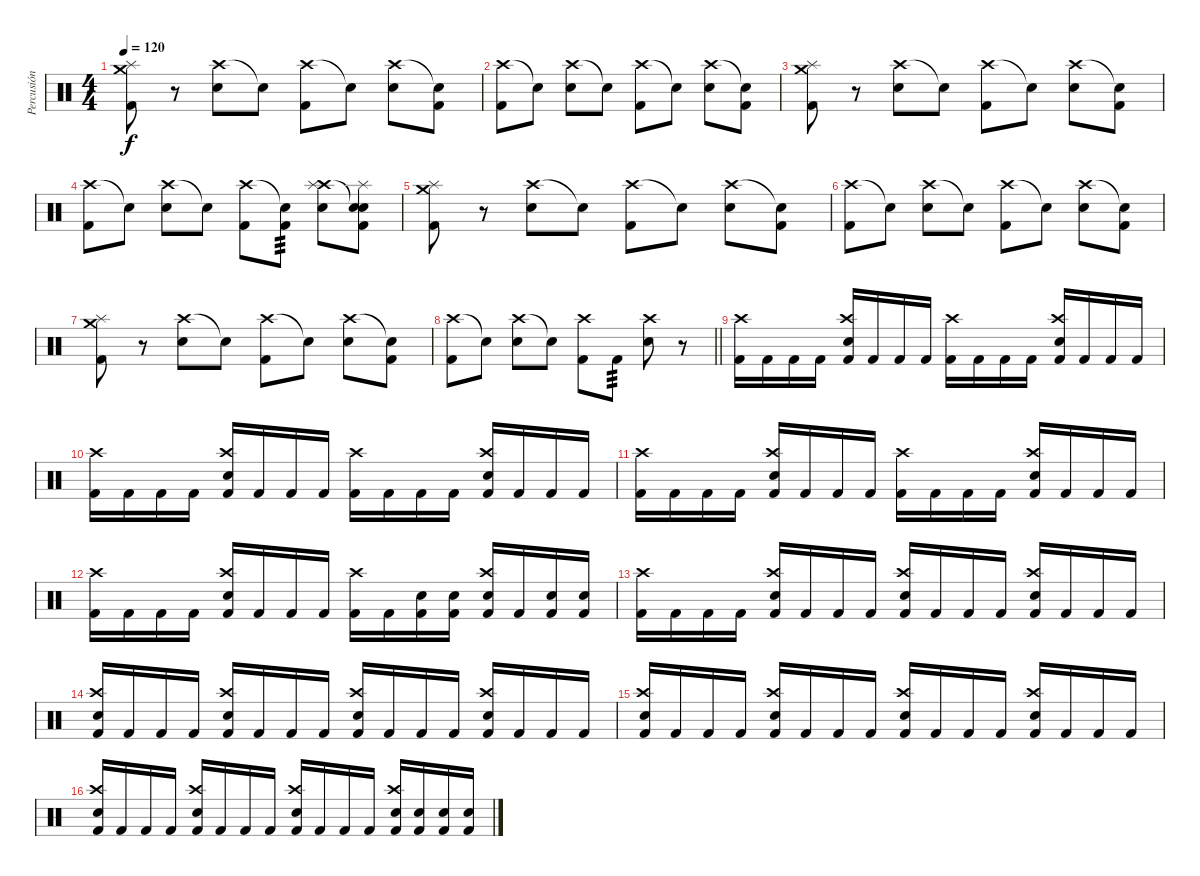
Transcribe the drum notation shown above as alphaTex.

\track ("Percusión" "Percusión") {instrument percussion}
\staff {score}
\articulation defaults
\ts (4 4)
\tempo 120
\clef neutral
\ks c
("Splash (hit)" "Crash medium (hit)" "Kick (hit) 2").8{dy f} r.8 ("Crash high (hit)" "Snare (hit) 2").8 "Snare (hit)"{t}.8 ("Crash high (hit)" "Kick (hit) 2").8 "Snare (hit)"{t}.8 ("Crash high (hit)" "Snare (hit) 2").8 ("Snare (hit)"{t} "Kick (hit) 2").8 |
("Crash high (hit)" "Kick (hit) 2").8 "Snare (hit)"{t}.8 ("Crash high (hit)" "Snare (hit) 2").8 "Snare (hit)"{t}.8 ("Crash high (hit)" "Kick (hit) 2").8 "Snare (hit)"{t}.8 ("Crash high (hit)" "Snare (hit) 2").8 ("Snare (hit)"{t} "Kick (hit) 2").8 |
("Splash (hit)" "Crash medium (hit)" "Kick (hit) 2").8 r.8 ("Crash high (hit)" "Snare (hit) 2").8 "Snare (hit)"{t}.8 ("Crash high (hit)" "Kick (hit) 2").8 "Snare (hit)"{t}.8 ("Crash high (hit)" "Snare (hit) 2").8 ("Snare (hit)"{t} "Kick (hit) 2").8 |
("Crash high (hit)" "Kick (hit) 2").8 "Snare (hit)"{t}.8 ("Crash high (hit)" "Snare (hit) 2").8 "Snare (hit)"{t}.8 ("Crash high (hit)" "Kick (hit) 2").8 ("Snare (hit)"{t} "Kick (hit) 2").8{tp 3} ("Crash high (hit)" "Splash (hit)" "Snare (hit) 2").8 ("Snare (hit)"{t} "Splash (hit)" "Snare (hit) 2" "Kick (hit) 2").8 |
("Splash (hit)" "Crash medium (hit)" "Kick (hit) 2").8 r.8 ("Crash high (hit)" "Snare (hit) 2").8 "Snare (hit)"{t}.8 ("Crash high (hit)" "Kick (hit) 2").8 "Snare (hit)"{t}.8 ("Crash high (hit)" "Snare (hit) 2").8 ("Snare (hit)"{t} "Kick (hit) 2").8 |
("Crash high (hit)" "Kick (hit) 2").8 "Snare (hit)"{t}.8 ("Crash high (hit)" "Snare (hit) 2").8 "Snare (hit)"{t}.8 ("Crash high (hit)" "Kick (hit) 2").8 "Snare (hit)"{t}.8 ("Crash high (hit)" "Snare (hit) 2").8 ("Snare (hit)"{t} "Kick (hit) 2").8 |
("Splash (hit)" "Crash medium (hit)" "Kick (hit) 2").8 r.8 ("Crash high (hit)" "Snare (hit) 2").8 "Snare (hit)"{t}.8 ("Crash high (hit)" "Kick (hit) 2").8 "Snare (hit)"{t}.8 ("Crash high (hit)" "Snare (hit) 2").8 ("Snare (hit)"{t} "Kick (hit) 2").8 |
\barLineRight lightlight
("Crash high (hit)" "Kick (hit) 2").8 "Snare (hit)"{t}.8 ("Crash high (hit)" "Snare (hit) 2").8 "Snare (hit)"{t}.8 ("Crash high (hit)" "Kick (hit) 2").8 "Kick (hit) 2".8{tp 3} ("Crash high (hit)" "Snare (hit) 2").8 r.8 |
("Crash high (hit)" "Kick (hit) 2").16 "Kick (hit) 2".16 "Kick (hit) 2".16 "Kick (hit) 2".16 ("Crash high (hit)" "Snare (hit) 2" "Kick (hit) 2").16 "Kick (hit) 2".16 "Kick (hit) 2".16 "Kick (hit) 2".16 ("Crash high (hit)" "Kick (hit) 2").16 "Kick (hit) 2".16 "Kick (hit) 2".16 "Kick (hit) 2".16 ("Crash high (hit)" "Snare (hit) 2" "Kick (hit) 2").16 "Kick (hit) 2".16 "Kick (hit) 2".16 "Kick (hit) 2".16 |
("Crash high (hit)" "Kick (hit) 2").16 "Kick (hit) 2".16 "Kick (hit) 2".16 "Kick (hit) 2".16 ("Crash high (hit)" "Snare (hit) 2" "Kick (hit) 2").16 "Kick (hit) 2".16 "Kick (hit) 2".16 "Kick (hit) 2".16 ("Crash high (hit)" "Kick (hit) 2").16 "Kick (hit) 2".16 "Kick (hit) 2".16 "Kick (hit) 2".16 ("Crash high (hit)" "Snare (hit) 2" "Kick (hit) 2").16 "Kick (hit) 2".16 "Kick (hit) 2".16 "Kick (hit) 2".16 |
("Crash high (hit)" "Kick (hit) 2").16 "Kick (hit) 2".16 "Kick (hit) 2".16 "Kick (hit) 2".16 ("Crash high (hit)" "Snare (hit) 2" "Kick (hit) 2").16 "Kick (hit) 2".16 "Kick (hit) 2".16 "Kick (hit) 2".16 ("Crash high (hit)" "Kick (hit) 2").16 "Kick (hit) 2".16 "Kick (hit) 2".16 "Kick (hit) 2".16 ("Crash high (hit)" "Snare (hit) 2" "Kick (hit) 2").16 "Kick (hit) 2".16 "Kick (hit) 2".16 "Kick (hit) 2".16 |
("Crash high (hit)" "Kick (hit) 2").16 "Kick (hit) 2".16 "Kick (hit) 2".16 "Kick (hit) 2".16 ("Crash high (hit)" "Snare (hit) 2" "Kick (hit) 2").16 "Kick (hit) 2".16 "Kick (hit) 2".16 "Kick (hit) 2".16 ("Crash high (hit)" "Kick (hit) 2").16 "Kick (hit) 2".16 ("Snare (hit) 2" "Kick (hit) 2").16 ("Snare (hit) 2" "Kick (hit) 2").16 ("Crash high (hit)" "Snare (hit) 2" "Kick (hit) 2").16 "Kick (hit) 2".16 ("Snare (hit) 2" "Kick (hit) 2").16 ("Snare (hit) 2" "Kick (hit) 2").16 |
("Crash high (hit)" "Kick (hit) 2").16 "Kick (hit) 2".16 "Kick (hit) 2".16 "Kick (hit) 2".16 ("Crash high (hit)" "Snare (hit) 2" "Kick (hit) 2").16 "Kick (hit) 2".16 "Kick (hit) 2".16 "Kick (hit) 2".16 ("Crash high (hit)" "Snare (hit) 2" "Kick (hit) 2").16 "Kick (hit) 2".16 "Kick (hit) 2".16 "Kick (hit) 2".16 ("Crash high (hit)" "Snare (hit) 2" "Kick (hit) 2").16 "Kick (hit) 2".16 "Kick (hit) 2".16 "Kick (hit) 2".16 |
("Crash high (hit)" "Snare (hit) 2" "Kick (hit) 2").16 "Kick (hit) 2".16 "Kick (hit) 2".16 "Kick (hit) 2".16 ("Crash high (hit)" "Snare (hit) 2" "Kick (hit) 2").16 "Kick (hit) 2".16 "Kick (hit) 2".16 "Kick (hit) 2".16 ("Crash high (hit)" "Snare (hit) 2" "Kick (hit) 2").16 "Kick (hit) 2".16 "Kick (hit) 2".16 "Kick (hit) 2".16 ("Crash high (hit)" "Snare (hit) 2" "Kick (hit) 2").16 "Kick (hit) 2".16 "Kick (hit) 2".16 "Kick (hit) 2".16 |
("Crash high (hit)" "Snare (hit) 2" "Kick (hit) 2").16 "Kick (hit) 2".16 "Kick (hit) 2".16 "Kick (hit) 2".16 ("Crash high (hit)" "Snare (hit) 2" "Kick (hit) 2").16 "Kick (hit) 2".16 "Kick (hit) 2".16 "Kick (hit) 2".16 ("Crash high (hit)" "Snare (hit) 2" "Kick (hit) 2").16 "Kick (hit) 2".16 "Kick (hit) 2".16 "Kick (hit) 2".16 ("Crash high (hit)" "Snare (hit) 2" "Kick (hit) 2").16 "Kick (hit) 2".16 "Kick (hit) 2".16 "Kick (hit) 2".16 |
("Crash high (hit)" "Snare (hit) 2" "Kick (hit) 2").16 "Kick (hit) 2".16 "Kick (hit) 2".16 "Kick (hit) 2".16 ("Crash high (hit)" "Snare (hit) 2" "Kick (hit) 2").16 "Kick (hit) 2".16 "Kick (hit) 2".16 "Kick (hit) 2".16 ("Crash high (hit)" "Snare (hit) 2" "Kick (hit) 2").16 "Kick (hit) 2".16 "Kick (hit) 2".16 "Kick (hit) 2".16 ("Crash high (hit)" "Snare (hit) 2" "Kick (hit) 2").16 ("Snare (hit) 2" "Kick (hit) 2").16 ("Snare (hit) 2" "Kick (hit) 2").16 ("Snare (hit) 2" "Kick (hit) 2").16
